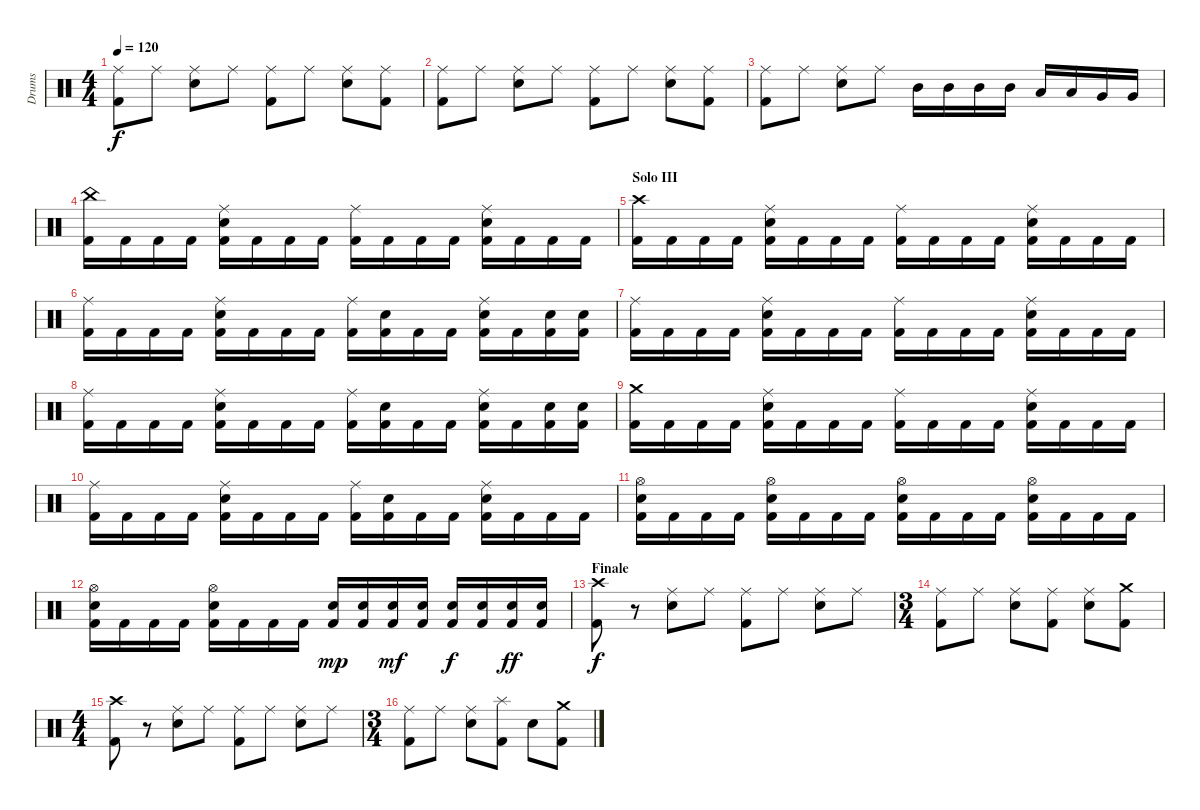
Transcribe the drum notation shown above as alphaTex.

\track ("Drums" "Drums") {instrument percussion}
\staff {score}
\articulation defaults
\ts (4 4)
\tempo 120
\clef neutral
\ks c
("Ride (middle)" "Kick (hit) 2").8{dy f} "Ride (middle)".8 ("Ride (middle)" "Snare (hit) 2").8 "Ride (middle)".8 ("Ride (middle)" "Kick (hit) 2").8 "Ride (middle)".8 ("Ride (middle)" "Snare (hit) 2").8 ("Ride (middle)" "Kick (hit) 2").8 |
("Ride (middle)" "Kick (hit) 2").8 "Ride (middle)".8 ("Ride (middle)" "Snare (hit) 2").8 "Ride (middle)".8 ("Ride (middle)" "Kick (hit) 2").8 "Ride (middle)".8 ("Ride (middle)" "Snare (hit) 2").8 ("Ride (middle)" "Kick (hit) 2").8 |
("Ride (middle)" "Kick (hit) 2").8 "Ride (middle)".8 ("Ride (middle)" "Snare (hit) 2").8 "Ride (middle)".8 "Mid Tom (hit)".16 "Mid Tom (hit)".16 "Mid Tom (hit)".16 "Mid Tom (hit)".16 "Low Tom (hit)".16 "Low Tom (hit)".16 "Very Low Tom (hit)".16 "Very Low Tom (hit)".16 |
("China (hit)" "Kick (hit) 2").16 "Kick (hit) 2".16 "Kick (hit) 2".16 "Kick (hit) 2".16 ("Ride (middle)" "Snare (hit) 2" "Kick (hit) 2").16 "Kick (hit) 2".16 "Kick (hit) 2".16 "Kick (hit) 2".16 ("Ride (middle)" "Kick (hit) 2").16 "Kick (hit) 2".16 "Kick (hit) 2".16 "Kick (hit) 2".16 ("Ride (middle)" "Snare (hit) 2" "Kick (hit) 2").16 "Kick (hit) 2".16 "Kick (hit) 2".16 "Kick (hit) 2".16 |
\section ("" "Solo III")
("Crash high (hit)" "Kick (hit) 2").16 "Kick (hit) 2".16 "Kick (hit) 2".16 "Kick (hit) 2".16 ("Ride (middle)" "Snare (hit) 2" "Kick (hit) 2").16 "Kick (hit) 2".16 "Kick (hit) 2".16 "Kick (hit) 2".16 ("Ride (middle)" "Kick (hit) 2").16 "Kick (hit) 2".16 "Kick (hit) 2".16 "Kick (hit) 2".16 ("Ride (middle)" "Snare (hit) 2" "Kick (hit) 2").16 "Kick (hit) 2".16 "Kick (hit) 2".16 "Kick (hit) 2".16 |
("Ride (middle)" "Kick (hit) 2").16 "Kick (hit) 2".16 "Kick (hit) 2".16 "Kick (hit) 2".16 ("Ride (middle)" "Snare (hit) 2" "Kick (hit) 2").16 "Kick (hit) 2".16 "Kick (hit) 2".16 "Kick (hit) 2".16 ("Ride (middle)" "Kick (hit) 2").16 ("Snare (hit) 2" "Kick (hit) 2").16 "Kick (hit) 2".16 "Kick (hit) 2".16 ("Ride (middle)" "Snare (hit) 2" "Kick (hit) 2").16 "Kick (hit) 2".16 ("Snare (hit) 2" "Kick (hit) 2").16 ("Snare (hit) 2" "Kick (hit) 2").16 |
("Ride (middle)" "Kick (hit) 2").16 "Kick (hit) 2".16 "Kick (hit) 2".16 "Kick (hit) 2".16 ("Ride (middle)" "Snare (hit) 2" "Kick (hit) 2").16 "Kick (hit) 2".16 "Kick (hit) 2".16 "Kick (hit) 2".16 ("Ride (middle)" "Kick (hit) 2").16 "Kick (hit) 2".16 "Kick (hit) 2".16 "Kick (hit) 2".16 ("Ride (middle)" "Snare (hit) 2" "Kick (hit) 2").16 "Kick (hit) 2".16 "Kick (hit) 2".16 "Kick (hit) 2".16 |
("Ride (middle)" "Kick (hit) 2").16 "Kick (hit) 2".16 "Kick (hit) 2".16 "Kick (hit) 2".16 ("Ride (middle)" "Snare (hit) 2" "Kick (hit) 2").16 "Kick (hit) 2".16 "Kick (hit) 2".16 "Kick (hit) 2".16 ("Ride (middle)" "Kick (hit) 2").16 ("Snare (hit) 2" "Kick (hit) 2").16 "Kick (hit) 2".16 "Kick (hit) 2".16 ("Ride (middle)" "Snare (hit) 2" "Kick (hit) 2").16 "Kick (hit) 2".16 ("Snare (hit) 2" "Kick (hit) 2").16 ("Snare (hit) 2" "Kick (hit) 2").16 |
("Crash medium (hit)" "Kick (hit) 2").16 "Kick (hit) 2".16 "Kick (hit) 2".16 "Kick (hit) 2".16 ("Ride (middle)" "Snare (hit) 2" "Kick (hit) 2").16 "Kick (hit) 2".16 "Kick (hit) 2".16 "Kick (hit) 2".16 ("Ride (middle)" "Kick (hit) 2").16 "Kick (hit) 2".16 "Kick (hit) 2".16 "Kick (hit) 2".16 ("Ride (middle)" "Snare (hit) 2" "Kick (hit) 2").16 "Kick (hit) 2".16 "Kick (hit) 2".16 "Kick (hit) 2".16 |
("Ride (middle)" "Kick (hit) 2").16 "Kick (hit) 2".16 "Kick (hit) 2".16 "Kick (hit) 2".16 ("Ride (middle)" "Snare (hit) 2" "Kick (hit) 2").16 "Kick (hit) 2".16 "Kick (hit) 2".16 "Kick (hit) 2".16 ("Ride (middle)" "Kick (hit) 2").16 ("Snare (hit) 2" "Kick (hit) 2").16 "Kick (hit) 2".16 "Kick (hit) 2".16 ("Ride (middle)" "Snare (hit) 2" "Kick (hit) 2").16 "Kick (hit) 2".16 "Kick (hit) 2".16 "Kick (hit) 2".16 |
("Hi-Hat (open)" "Snare (hit) 2" "Kick (hit) 2").16 "Kick (hit) 2".16 "Kick (hit) 2".16 "Kick (hit) 2".16 ("Hi-Hat (open)" "Snare (hit) 2" "Kick (hit) 2").16 "Kick (hit) 2".16 "Kick (hit) 2".16 "Kick (hit) 2".16 ("Hi-Hat (open)" "Snare (hit) 2" "Kick (hit) 2").16 "Kick (hit) 2".16 "Kick (hit) 2".16 "Kick (hit) 2".16 ("Hi-Hat (open)" "Snare (hit) 2" "Kick (hit) 2").16 "Kick (hit) 2".16 "Kick (hit) 2".16 "Kick (hit) 2".16 |
("Hi-Hat (open)" "Snare (hit) 2" "Kick (hit) 2").16 "Kick (hit) 2".16 "Kick (hit) 2".16 "Kick (hit) 2".16 ("Hi-Hat (open)" "Snare (hit) 2" "Kick (hit) 2").16 "Kick (hit) 2".16 "Kick (hit) 2".16 "Kick (hit) 2".16 ("Snare (hit) 2" "Kick (hit) 2").16{dy mp} ("Snare (hit) 2" "Kick (hit) 2").16 ("Snare (hit) 2" "Kick (hit) 2").16{dy mf} ("Snare (hit) 2" "Kick (hit) 2").16 ("Snare (hit) 2" "Kick (hit) 2").16{dy f} ("Snare (hit) 2" "Kick (hit) 2").16 ("Snare (hit) 2" "Kick (hit) 2").16{dy ff} ("Snare (hit) 2" "Kick (hit) 2").16 |
\section ("" "Finale")
("Crash high (hit)" "Kick (hit) 2").8{dy f} r.8 ("Ride (middle)" "Snare (hit) 2").8 "Ride (middle)".8 ("Ride (middle)" "Kick (hit) 2").8 "Ride (middle)".8 ("Ride (middle)" "Snare (hit) 2").8 "Ride (middle)".8 |
\ts (3 4)
("Ride (middle)" "Kick (hit) 2").8 "Ride (middle)".8 ("Ride (middle)" "Snare (hit) 2").8 ("Ride (middle)" "Kick (hit) 2").8 ("Ride (middle)" "Snare (hit) 2").8 ("Crash medium (hit)" "Kick (hit) 2").8 |
\ts (4 4)
("Crash high (hit)" "Kick (hit) 2").8 r.8 ("Ride (middle)" "Snare (hit) 2").8 "Ride (middle)".8 ("Ride (middle)" "Kick (hit) 2").8 "Ride (middle)".8 ("Ride (middle)" "Snare (hit) 2").8 "Ride (middle)".8 |
\ts (3 4)
("Ride (middle)" "Kick (hit) 2").8 "Ride (middle)".8 ("Ride (middle)" "Snare (hit) 2").8 ("Splash (hit)" "Kick (hit) 2").8 "Snare (hit) 2".8 ("Crash medium (hit)" "Kick (hit) 2").8
